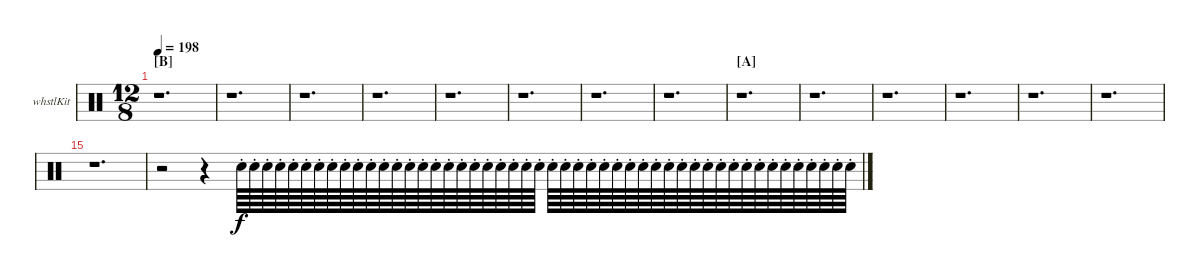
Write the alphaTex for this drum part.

\bracketExtendMode nobrackets
\firstSystemTrackNameOrientation horizontal
\otherSystemsTrackNameOrientation horizontal
\defaultBarNumberDisplay FirstOfSystem
\track ("Whistle" "whstlKit") {instrument percussion}
\staff {score}
\articulation defaults
\ts (12 8)
\section ("B" "")
\tempo 198
\clef neutral
\ks c
r.1{d dy f} |
r.1{d} |
r.1{d} |
r.1{d} |
r.1{d} |
r.1{d} |
r.1{d} |
r.1{d} |
\section ("A" "")
\scale
0.333333 r.1{d} |
r.1{d} |
r.1{d} |
r.1{d} |
r.1{d} |
r.1{d} |
r.1{d} |
r.2 r.4 "Snare (hit) 2"{st}.64 "Snare (hit) 2"{st}.64 "Snare (hit) 2"{st}.64 "Snare (hit) 2"{st}.64 "Snare (hit) 2"{st}.64 "Snare (hit) 2"{st}.64 "Snare (hit) 2"{st}.64 "Snare (hit) 2"{st}.64 "Snare (hit) 2"{st}.64 "Snare (hit) 2"{st}.64 "Snare (hit) 2"{st}.64 "Snare (hit) 2"{st}.64 "Snare (hit) 2"{st}.64 "Snare (hit) 2"{st}.64 "Snare (hit) 2"{st}.64 "Snare (hit) 2"{st}.64 "Snare (hit) 2"{st}.64 "Snare (hit) 2"{st}.64 "Snare (hit) 2"{st}.64 "Snare (hit) 2"{st}.64 "Snare (hit) 2"{st}.64 "Snare (hit) 2"{st}.64 "Snare (hit) 2"{st}.64 "Snare (hit) 2"{st}.64 "Snare (hit) 2"{st}.64 "Snare (hit) 2"{st}.64 "Snare (hit) 2"{st}.64 "Snare (hit) 2"{st}.64 "Snare (hit) 2"{st}.64 "Snare (hit) 2"{st}.64 "Snare (hit) 2"{st}.64 "Snare (hit) 2"{st}.64 "Snare (hit) 2"{st}.64 "Snare (hit) 2"{st}.64 "Snare (hit) 2"{st}.64 "Snare (hit) 2"{st}.64 "Snare (hit) 2"{st}.64 "Snare (hit) 2"{st}.64 "Snare (hit) 2"{st}.64 "Snare (hit) 2"{st}.64 "Snare (hit) 2"{st}.64 "Snare (hit) 2"{st}.64 "Snare (hit) 2"{st}.64 "Snare (hit) 2"{st}.64 "Snare (hit) 2"{st}.64 "Snare (hit) 2"{st}.64 "Snare (hit) 2"{st}.64 "Snare (hit) 2"{st}.64
